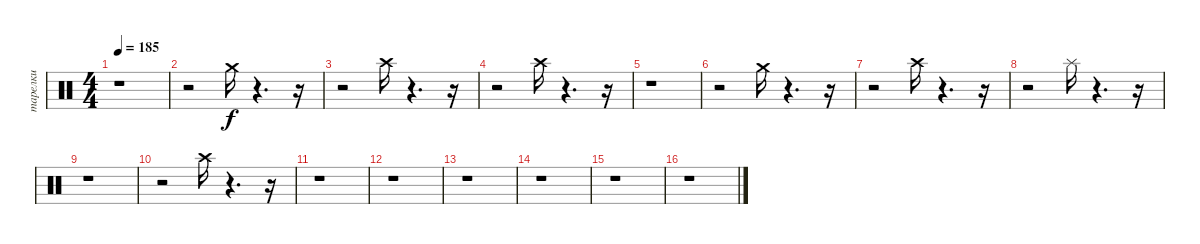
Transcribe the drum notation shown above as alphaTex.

\track ("тарелки" "тарелки") {instrument percussion}
\staff {score}
\articulation defaults
\ts (4 4)
\tempo 185
\clef neutral
\ks c
r.1{dy f} |
r.2 "Crash medium (hit)".16 r.4{d} r.16 |
r.2 "Crash high (hit)".16 r.4{d} r.16 |
r.2 "Crash high (hit)".16 r.4{d} r.16 |
r.1 |
r.2 "Crash medium (hit)".16 r.4{d} r.16 |
r.2 "Crash high (hit)".16 r.4{d} r.16 |
r.2 "Splash (hit)".16 r.4{d} r.16 |
r.1 |
r.2 "Crash high (hit)".16 r.4{d} r.16 |
r.1 |
r.1 |
r.1 |
r.1 |
r.1 |
r.1
